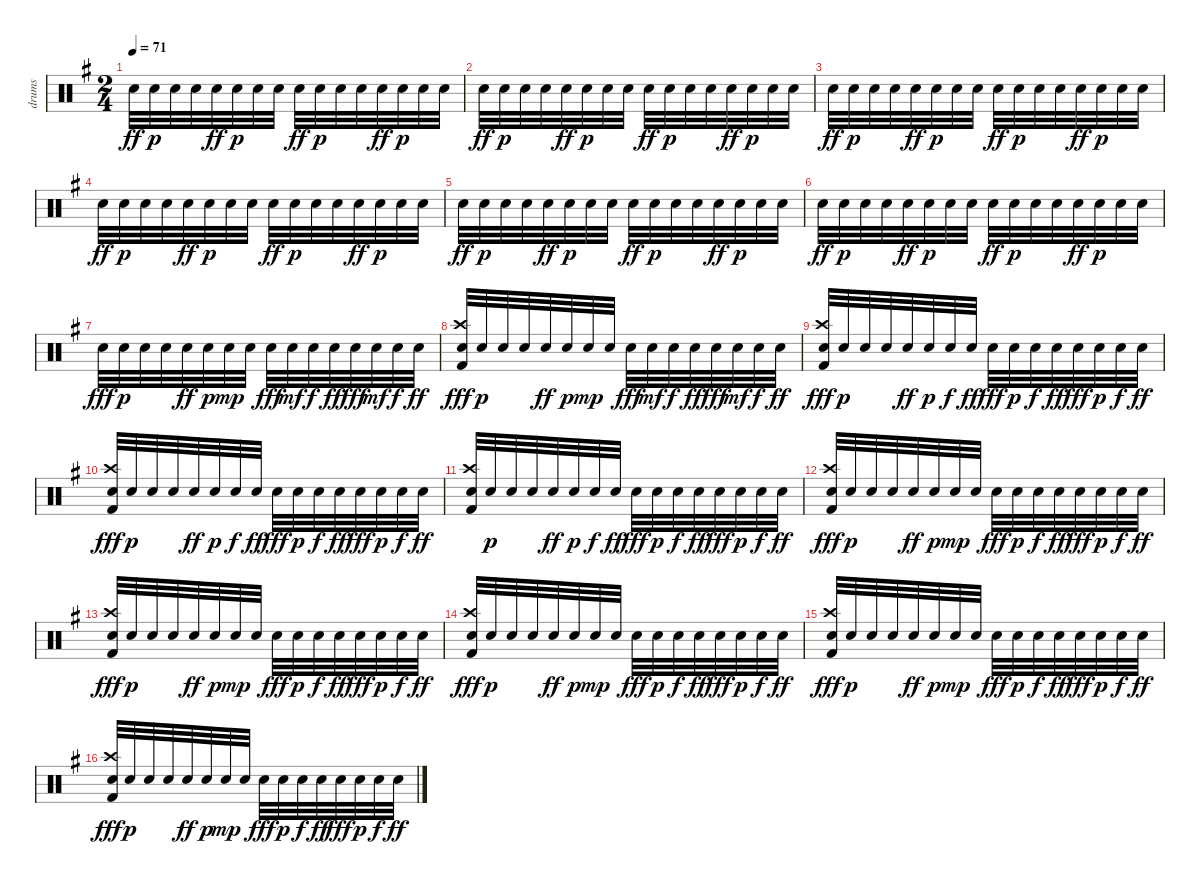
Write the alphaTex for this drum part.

\track ("drums" "drums") {instrument percussion}
\staff {score}
\articulation defaults
\ts (2 4)
\tempo 71
\clef neutral
\ks g "Snare (hit) 2".32{dy ff} "Snare (hit) 2".32{dy p} "Snare (hit) 2".32 "Snare (hit) 2".32 "Snare (hit) 2".32{dy ff} "Snare (hit) 2".32{dy p} "Snare (hit) 2".32 "Snare (hit) 2".32 "Snare (hit) 2".32{dy ff volume 10} "Snare (hit) 2".32{dy p} "Snare (hit) 2".32 "Snare (hit) 2".32 "Snare (hit) 2".32{dy ff} "Snare (hit) 2".32{dy p} "Snare (hit) 2".32 "Snare (hit) 2".32
|
"Snare (hit) 2".32{dy ff} "Snare (hit) 2".32{dy p} "Snare (hit) 2".32 "Snare (hit) 2".32 "Snare (hit) 2".32{dy ff} "Snare (hit) 2".32{dy p} "Snare (hit) 2".32 "Snare (hit) 2".32 "Snare (hit) 2".32{dy ff volume 13} "Snare (hit) 2".32{dy p} "Snare (hit) 2".32 "Snare (hit) 2".32 "Snare (hit) 2".32{dy ff} "Snare (hit) 2".32{dy p} "Snare (hit) 2".32 "Snare (hit) 2".32 |
"Snare (hit) 2".32{dy ff} "Snare (hit) 2".32{dy p} "Snare (hit) 2".32 "Snare (hit) 2".32 "Snare (hit) 2".32{dy ff} "Snare (hit) 2".32{dy p} "Snare (hit) 2".32 "Snare (hit) 2".32 "Snare (hit) 2".32{dy ff} "Snare (hit) 2".32{dy p} "Snare (hit) 2".32 "Snare (hit) 2".32 "Snare (hit) 2".32{dy ff} "Snare (hit) 2".32{dy p} "Snare (hit) 2".32 "Snare (hit) 2".32 |
"Snare (hit) 2".32{dy ff} "Snare (hit) 2".32{dy p} "Snare (hit) 2".32 "Snare (hit) 2".32 "Snare (hit) 2".32{dy ff} "Snare (hit) 2".32{dy p} "Snare (hit) 2".32 "Snare (hit) 2".32 "Snare (hit) 2".32{dy ff} "Snare (hit) 2".32{dy p} "Snare (hit) 2".32 "Snare (hit) 2".32 "Snare (hit) 2".32{dy ff} "Snare (hit) 2".32{dy p} "Snare (hit) 2".32 "Snare (hit) 2".32 |
"Snare (hit) 2".32{dy ff} "Snare (hit) 2".32{dy p} "Snare (hit) 2".32 "Snare (hit) 2".32 "Snare (hit) 2".32{dy ff} "Snare (hit) 2".32{dy p} "Snare (hit) 2".32 "Snare (hit) 2".32 "Snare (hit) 2".32{dy ff} "Snare (hit) 2".32{dy p} "Snare (hit) 2".32 "Snare (hit) 2".32 "Snare (hit) 2".32{dy ff} "Snare (hit) 2".32{dy p} "Snare (hit) 2".32 "Snare (hit) 2".32 |
"Snare (hit) 2".32{dy ff} "Snare (hit) 2".32{dy p} "Snare (hit) 2".32 "Snare (hit) 2".32 "Snare (hit) 2".32{dy ff} "Snare (hit) 2".32{dy p} "Snare (hit) 2".32 "Snare (hit) 2".32 "Snare (hit) 2".32{dy ff} "Snare (hit) 2".32{dy p} "Snare (hit) 2".32 "Snare (hit) 2".32 "Snare (hit) 2".32{dy ff} "Snare (hit) 2".32{dy p} "Snare (hit) 2".32 "Snare (hit) 2".32 |
"Snare (hit) 2".32{dy fff} "Snare (hit) 2".32{dy p} "Snare (hit) 2".32 "Snare (hit) 2".32 "Snare (hit) 2".32{dy ff} "Snare (hit) 2".32{dy p} "Snare (hit) 2".32{dy mp} "Snare (hit) 2".32 "Snare (hit) 2".32{dy fff} "Snare (hit) 2".32{dy mf} "Snare (hit) 2".32{dy f} "Snare (hit) 2".32{dy ff} "Snare (hit) 2".32{dy fff} "Snare (hit) 2".32{dy mf} "Snare (hit) 2".32{dy f} "Snare (hit) 2".32{dy ff} |
("Crash high (hit)" "Snare (hit) 2" "Kick (hit) 2").32{dy fff} "Snare (hit) 2".32{dy p} "Snare (hit) 2".32 "Snare (hit) 2".32 "Snare (hit) 2".32{dy ff} "Snare (hit) 2".32{dy p} "Snare (hit) 2".32{dy mp} "Snare (hit) 2".32 "Snare (hit) 2".32{dy fff} "Snare (hit) 2".32{dy mf} "Snare (hit) 2".32{dy f} "Snare (hit) 2".32{dy ff} "Snare (hit) 2".32{dy fff} "Snare (hit) 2".32{dy mf} "Snare (hit) 2".32{dy f} "Snare (hit) 2".32{dy ff} |
("Crash high (hit)" "Snare (hit) 2" "Kick (hit) 2").32{dy fff} "Snare (hit) 2".32{dy p} "Snare (hit) 2".32 "Snare (hit) 2".32 "Snare (hit) 2".32{dy ff} "Snare (hit) 2".32{dy p} "Snare (hit) 2".32{dy f} "Snare (hit) 2".32{dy ff} "Snare (hit) 2".32{dy fff} "Snare (hit) 2".32{dy p} "Snare (hit) 2".32{dy f} "Snare (hit) 2".32{dy ff} "Snare (hit) 2".32{dy fff} "Snare (hit) 2".32{dy p} "Snare (hit) 2".32{dy f} "Snare (hit) 2".32{dy ff} |
("Crash high (hit)" "Snare (hit) 2" "Kick (hit) 2").32{dy fff} "Snare (hit) 2".32{dy p} "Snare (hit) 2".32 "Snare (hit) 2".32 "Snare (hit) 2".32{dy ff} "Snare (hit) 2".32{dy p} "Snare (hit) 2".32{dy f} "Snare (hit) 2".32{dy ff} "Snare (hit) 2".32{dy fff} "Snare (hit) 2".32{dy p} "Snare (hit) 2".32{dy f} "Snare (hit) 2".32{dy ff} "Snare (hit) 2".32{dy fff} "Snare (hit) 2".32{dy p} "Snare (hit) 2".32{dy f} "Snare (hit) 2".32{dy ff} |
("Crash high (hit)" "Snare (hit) 2" "Kick (hit) 2").32 "Snare (hit) 2".32{dy p} "Snare (hit) 2".32 "Snare (hit) 2".32 "Snare (hit) 2".32{dy ff} "Snare (hit) 2".32{dy p} "Snare (hit) 2".32{dy f} "Snare (hit) 2".32{dy ff} "Snare (hit) 2".32{dy fff} "Snare (hit) 2".32{dy p} "Snare (hit) 2".32{dy f} "Snare (hit) 2".32{dy ff} "Snare (hit) 2".32{dy fff} "Snare (hit) 2".32{dy p} "Snare (hit) 2".32{dy f} "Snare (hit) 2".32{dy ff} |
("Crash high (hit)" "Snare (hit) 2" "Kick (hit) 2").32{dy fff} "Snare (hit) 2".32{dy p} "Snare (hit) 2".32 "Snare (hit) 2".32 "Snare (hit) 2".32{dy ff} "Snare (hit) 2".32{dy p} "Snare (hit) 2".32{dy mp} "Snare (hit) 2".32 "Snare (hit) 2".32{dy fff} "Snare (hit) 2".32{dy p} "Snare (hit) 2".32{dy f} "Snare (hit) 2".32{dy ff} "Snare (hit) 2".32{dy fff} "Snare (hit) 2".32{dy p} "Snare (hit) 2".32{dy f} "Snare (hit) 2".32{dy ff} |
("Crash high (hit)" "Snare (hit) 2" "Kick (hit) 2").32{dy fff} "Snare (hit) 2".32{dy p} "Snare (hit) 2".32 "Snare (hit) 2".32 "Snare (hit) 2".32{dy ff} "Snare (hit) 2".32{dy p} "Snare (hit) 2".32{dy mp} "Snare (hit) 2".32 "Snare (hit) 2".32{dy fff} "Snare (hit) 2".32{dy p} "Snare (hit) 2".32{dy f} "Snare (hit) 2".32{dy ff} "Snare (hit) 2".32{dy fff} "Snare (hit) 2".32{dy p} "Snare (hit) 2".32{dy f} "Snare (hit) 2".32{dy ff} |
("Crash high (hit)" "Snare (hit) 2" "Kick (hit) 2").32{dy fff} "Snare (hit) 2".32{dy p} "Snare (hit) 2".32 "Snare (hit) 2".32 "Snare (hit) 2".32{dy ff} "Snare (hit) 2".32{dy p} "Snare (hit) 2".32{dy mp} "Snare (hit) 2".32 "Snare (hit) 2".32{dy fff} "Snare (hit) 2".32{dy p} "Snare (hit) 2".32{dy f} "Snare (hit) 2".32{dy ff} "Snare (hit) 2".32{dy fff} "Snare (hit) 2".32{dy p} "Snare (hit) 2".32{dy f} "Snare (hit) 2".32{dy ff} |
("Crash high (hit)" "Snare (hit) 2" "Kick (hit) 2").32{dy fff} "Snare (hit) 2".32{dy p} "Snare (hit) 2".32 "Snare (hit) 2".32 "Snare (hit) 2".32{dy ff} "Snare (hit) 2".32{dy p} "Snare (hit) 2".32{dy mp} "Snare (hit) 2".32 "Snare (hit) 2".32{dy fff} "Snare (hit) 2".32{dy p} "Snare (hit) 2".32{dy f} "Snare (hit) 2".32{dy ff} "Snare (hit) 2".32{dy fff} "Snare (hit) 2".32{dy p} "Snare (hit) 2".32{dy f} "Snare (hit) 2".32{dy ff} |
("Crash high (hit)" "Snare (hit) 2" "Kick (hit) 2").32{dy fff} "Snare (hit) 2".32{dy p} "Snare (hit) 2".32 "Snare (hit) 2".32 "Snare (hit) 2".32{dy ff} "Snare (hit) 2".32{dy p} "Snare (hit) 2".32{dy mp} "Snare (hit) 2".32 "Snare (hit) 2".32{dy fff} "Snare (hit) 2".32{dy p} "Snare (hit) 2".32{dy f} "Snare (hit) 2".32{dy ff} "Snare (hit) 2".32{dy fff} "Snare (hit) 2".32{dy p} "Snare (hit) 2".32{dy f} "Snare (hit) 2".32{dy ff}
